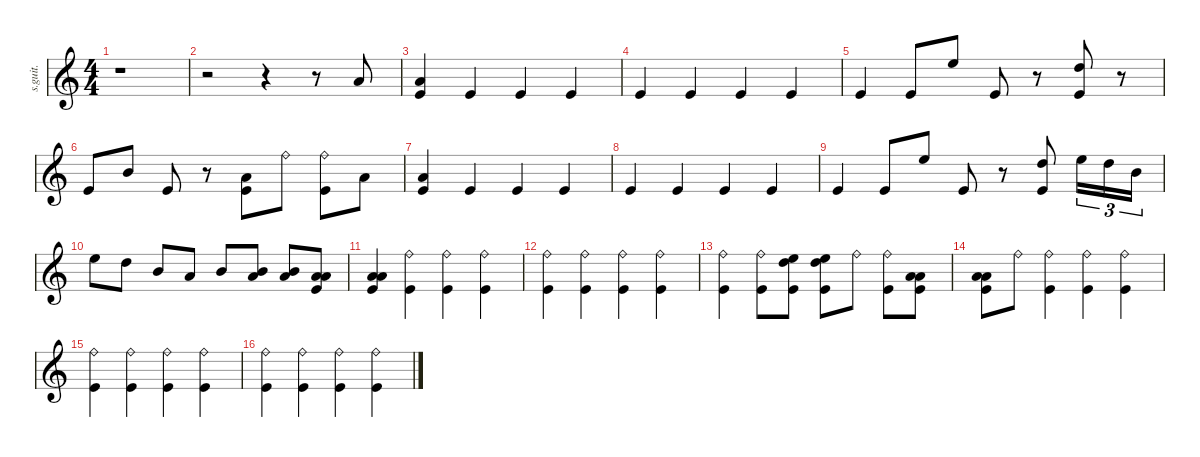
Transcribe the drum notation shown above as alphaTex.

\defaultSystemsLayout 4
\hideDynamics
\bracketExtendMode nobrackets
\track ("A Nameless Ghoul - Drums" "s.guit.") {instrument percussion}
\staff {score}
\articulation defaults
\ts (4 4)
\beaming (8 2 2 2 2)
\tempo (130 hide)
\clef g2
\ks c
r.1{dy f} |
r.2 r.4 r.8 "Low Tom (hit)".8 |
("Low Tom (hit)" "Kick (hit)").4 "Kick (hit)".4 "Kick (hit)".4 "Kick (hit)".4 |
"Kick (hit)".4 "Kick (hit)".4 "Kick (hit)".4 "Kick (hit)".4 |
"Kick (hit)".4 "Kick (hit)".8 "High Floor Tom (hit)".8 "Kick (hit)".8 r.8 ("High Tom (hit)" "Kick (hit)").8 r.8 |
"Kick (hit)".8 "Mid Tom (hit)".8 "Kick (hit)".8 r.8 ("Low Tom (hit)" "Kick (hit)").8 "Ride (bell)".8 ("Ride (bell)" "Kick (hit)").8 "Low Tom (hit)".8 |
("Low Tom (hit)" "Kick (hit)").4 "Kick (hit)".4 "Kick (hit)".4 "Kick (hit)".4 |
"Kick (hit)".4 "Kick (hit)".4 "Kick (hit)".4 "Kick (hit)".4 |
"Kick (hit)".4 "Kick (hit)".8 "High Floor Tom (hit)".8 "Kick (hit)".8 r.8 ("High Tom (hit)" "Kick (hit)").8 "High Floor Tom (hit)".16{tu (3 2)} "High Tom (hit)".16{tu (3 2)} "Mid Tom (hit)".16{tu (3 2)} |
"High Floor Tom (hit)".8 "High Tom (hit)".8 "Mid Tom (hit)".8 "Low Tom (hit)".8 "Mid Tom (hit)".8 ("Mid Tom (hit)" "Low Tom (hit)").8 ("Mid Tom (hit)" "Low Tom (hit)").8 ("Low Tom (hit)" "Low Floor Tom (hit)" "Kick (hit)").8 |
("Low Tom (hit)" "Low Floor Tom (hit)" "Kick (hit)").4 ("Ride (bell)" "Kick (hit)").4 ("Ride (bell)" "Kick (hit)").4 ("Ride (bell)" "Kick (hit)").4 |
("Ride (bell)" "Kick (hit)").4 ("Ride (bell)" "Kick (hit)").4 ("Ride (bell)" "Kick (hit)").4 ("Ride (bell)" "Kick (hit)").4 |
("Ride (bell)" "Kick (hit)").4 ("Ride (bell)" "Kick (hit)").8 ("High Floor Tom (hit)" "High Tom (hit)" "Kick (hit)").8 ("High Floor Tom (hit)" "High Tom (hit)" "Kick (hit)").8 "Ride (bell)".8 ("Ride (bell)" "Kick (hit)").8 ("Low Tom (hit)" "Low Floor Tom (hit)" "Kick (hit)").8 |
("Low Tom (hit)" "Low Floor Tom (hit)" "Kick (hit)").8 "Ride (bell)".8 ("Ride (bell)" "Kick (hit)").4 ("Ride (bell)" "Kick (hit)").4 ("Ride (bell)" "Kick (hit)").4 |
("Ride (bell)" "Kick (hit)").4 ("Ride (bell)" "Kick (hit)").4 ("Ride (bell)" "Kick (hit)").4 ("Ride (bell)" "Kick (hit)").4 |
("Ride (bell)" "Kick (hit)").4 ("Ride (bell)" "Kick (hit)").4 ("Ride (bell)" "Kick (hit)").4 ("Ride (bell)" "Kick (hit)").4
